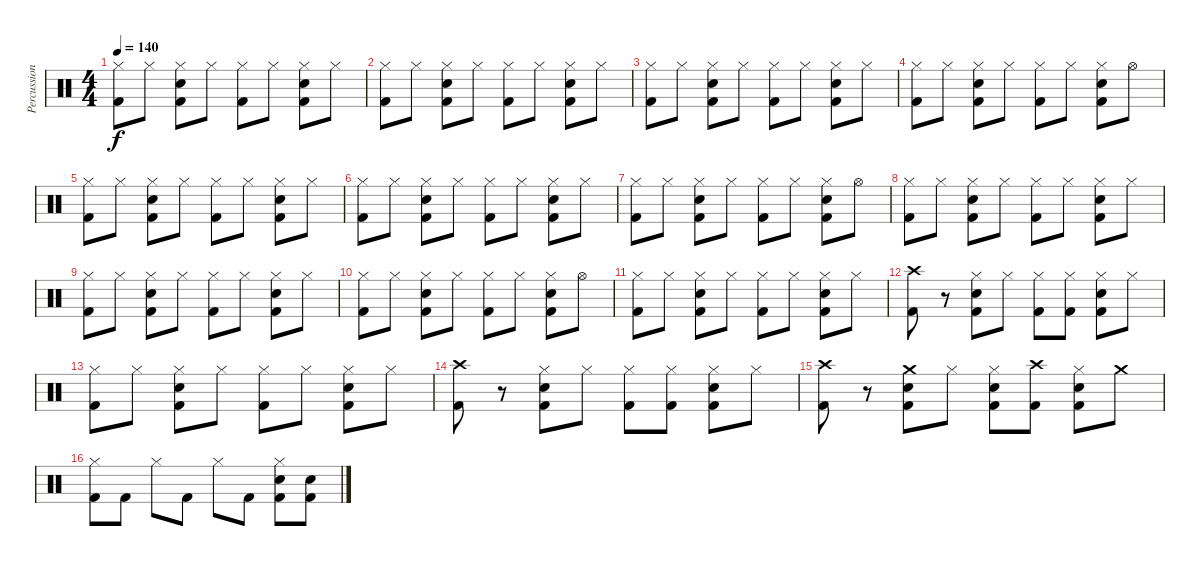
\track ("Percussions" "Percussion") {instrument percussion}
\staff {score}
\articulation defaults
\ts (4 4)
\tempo 140
\clef neutral
\ks c
("Hi-Hat (closed)" "Kick (hit) 2").8{dy f} "Hi-Hat (closed)".8 ("Hi-Hat (closed)" "Snare (hit) 2" "Kick (hit) 2").8 "Hi-Hat (closed)".8 ("Hi-Hat (closed)" "Kick (hit) 2").8 "Hi-Hat (closed)".8 ("Hi-Hat (closed)" "Snare (hit) 2" "Kick (hit) 2").8 "Hi-Hat (closed)".8 |
("Hi-Hat (closed)" "Kick (hit) 2").8 "Hi-Hat (closed)".8 ("Hi-Hat (closed)" "Snare (hit) 2" "Kick (hit) 2").8 "Hi-Hat (closed)".8 ("Hi-Hat (closed)" "Kick (hit) 2").8 "Hi-Hat (closed)".8 ("Hi-Hat (closed)" "Snare (hit) 2" "Kick (hit) 2").8 "Hi-Hat (closed)".8 |
("Hi-Hat (closed)" "Kick (hit) 2").8 "Hi-Hat (closed)".8 ("Hi-Hat (closed)" "Snare (hit) 2" "Kick (hit) 2").8 "Hi-Hat (closed)".8 ("Hi-Hat (closed)" "Kick (hit) 2").8 "Hi-Hat (closed)".8 ("Hi-Hat (closed)" "Snare (hit) 2" "Kick (hit) 2").8 "Hi-Hat (closed)".8 |
("Hi-Hat (closed)" "Kick (hit) 2").8 "Hi-Hat (closed)".8 ("Hi-Hat (closed)" "Snare (hit) 2" "Kick (hit) 2").8 "Hi-Hat (closed)".8 ("Hi-Hat (closed)" "Kick (hit) 2").8 "Hi-Hat (closed)".8 ("Hi-Hat (closed)" "Snare (hit) 2" "Kick (hit) 2").8 "Hi-Hat (open)".8 |
("Hi-Hat (closed)" "Kick (hit) 2").8 "Hi-Hat (closed)".8 ("Hi-Hat (closed)" "Snare (hit) 2" "Kick (hit) 2").8 "Hi-Hat (closed)".8 ("Hi-Hat (closed)" "Kick (hit) 2").8 "Hi-Hat (closed)".8 ("Hi-Hat (closed)" "Snare (hit) 2" "Kick (hit) 2").8 "Hi-Hat (closed)".8 |
("Hi-Hat (closed)" "Kick (hit) 2").8 "Hi-Hat (closed)".8 ("Hi-Hat (closed)" "Snare (hit) 2" "Kick (hit) 2").8 "Hi-Hat (closed)".8 ("Hi-Hat (closed)" "Kick (hit) 2").8 "Hi-Hat (closed)".8 ("Hi-Hat (closed)" "Snare (hit) 2" "Kick (hit) 2").8 "Hi-Hat (closed)".8 |
("Hi-Hat (closed)" "Kick (hit) 2").8 "Hi-Hat (closed)".8 ("Hi-Hat (closed)" "Snare (hit) 2" "Kick (hit) 2").8 "Hi-Hat (closed)".8 ("Hi-Hat (closed)" "Kick (hit) 2").8 "Hi-Hat (closed)".8 ("Hi-Hat (closed)" "Snare (hit) 2" "Kick (hit) 2").8 "Hi-Hat (open)".8 |
("Hi-Hat (closed)" "Kick (hit) 2").8 "Hi-Hat (closed)".8 ("Hi-Hat (closed)" "Snare (hit) 2" "Kick (hit) 2").8 "Hi-Hat (closed)".8 ("Hi-Hat (closed)" "Kick (hit) 2").8 "Hi-Hat (closed)".8 ("Hi-Hat (closed)" "Snare (hit) 2" "Kick (hit) 2").8 "Hi-Hat (closed)".8 |
("Hi-Hat (closed)" "Kick (hit) 2").8 "Hi-Hat (closed)".8 ("Hi-Hat (closed)" "Snare (hit) 2" "Kick (hit) 2").8 "Hi-Hat (closed)".8 ("Hi-Hat (closed)" "Kick (hit) 2").8 "Hi-Hat (closed)".8 ("Hi-Hat (closed)" "Snare (hit) 2" "Kick (hit) 2").8 "Hi-Hat (closed)".8 |
("Hi-Hat (closed)" "Kick (hit) 2").8 "Hi-Hat (closed)".8 ("Hi-Hat (closed)" "Snare (hit) 2" "Kick (hit) 2").8 "Hi-Hat (closed)".8 ("Hi-Hat (closed)" "Kick (hit) 2").8 "Hi-Hat (closed)".8 ("Hi-Hat (closed)" "Snare (hit) 2" "Kick (hit) 2").8 "Hi-Hat (open)".8 |
("Hi-Hat (closed)" "Kick (hit) 2").8 "Hi-Hat (closed)".8 ("Hi-Hat (closed)" "Snare (hit) 2" "Kick (hit) 2").8 "Hi-Hat (closed)".8 ("Hi-Hat (closed)" "Kick (hit) 2").8 "Hi-Hat (closed)".8 ("Hi-Hat (closed)" "Snare (hit) 2" "Kick (hit) 2").8 "Hi-Hat (closed)".8 |
("Crash high (hit)" "Kick (hit) 2").8 r.8 ("Hi-Hat (closed)" "Snare (hit) 2" "Kick (hit) 2").8 "Hi-Hat (closed)".8 ("Hi-Hat (closed)" "Kick (hit) 2").8 ("Hi-Hat (closed)" "Kick (hit) 2").8 ("Hi-Hat (closed)" "Snare (hit) 2" "Kick (hit) 2").8 "Hi-Hat (closed)".8 |
("Hi-Hat (closed)" "Kick (hit) 2").8 "Hi-Hat (closed)".8 ("Hi-Hat (closed)" "Snare (hit) 2" "Kick (hit) 2").8 "Hi-Hat (closed)".8 ("Hi-Hat (closed)" "Kick (hit) 2").8 "Hi-Hat (closed)".8 ("Hi-Hat (closed)" "Snare (hit) 2" "Kick (hit) 2").8 "Hi-Hat (closed)".8 |
("Crash high (hit)" "Kick (hit) 2").8 r.8 ("Hi-Hat (closed)" "Snare (hit) 2" "Kick (hit) 2").8 "Hi-Hat (closed)".8 ("Hi-Hat (closed)" "Kick (hit) 2").8 ("Hi-Hat (closed)" "Kick (hit) 2").8 ("Hi-Hat (closed)" "Snare (hit) 2" "Kick (hit) 2").8 "Hi-Hat (closed)".8 |
("Crash high (hit)" "Kick (hit) 2").8 r.8 ("Crash medium (hit)" "Snare (hit) 2" "Kick (hit) 2").8 "Hi-Hat (closed)".8 ("Hi-Hat (closed)" "Snare (hit) 2" "Kick (hit) 2").8 ("Crash high (hit)" "Kick (hit) 2").8 ("Hi-Hat (closed)" "Snare (hit) 2" "Kick (hit) 2").8 "Crash medium (hit)".8 |
("Hi-Hat (closed)" "Kick (hit) 2").8 "Kick (hit) 2".8 "Hi-Hat (closed)".8 "Kick (hit) 2".8 "Hi-Hat (closed)".8 "Kick (hit) 2".8 ("Hi-Hat (closed)" "Electric Snare (hit)" "Kick (hit) 2").8 ("Electric Snare (hit)" "Kick (hit) 2").8
